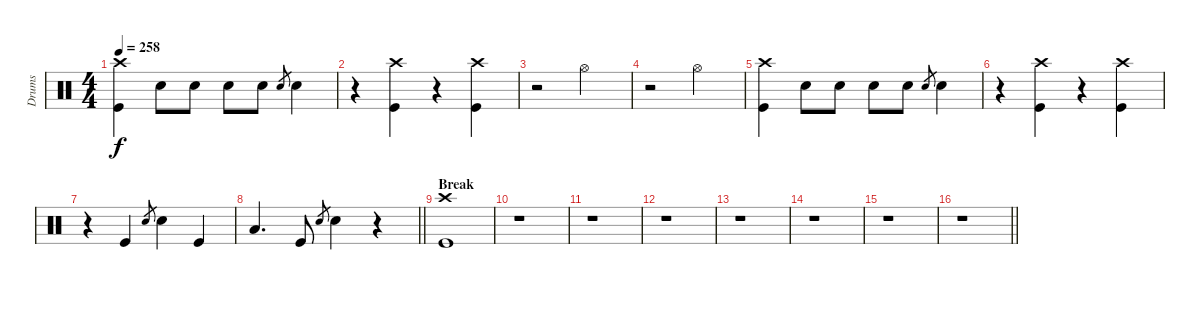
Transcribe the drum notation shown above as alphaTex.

\track ("Drums" "Drums") {instrument percussion}
\staff {score}
\articulation defaults
\ts (4 4)
\tempo 258
\clef neutral
\ks c
("Crash high (hit)" "Kick (hit)").4{dy f} "Electric Snare (hit)".8 "Electric Snare (hit)".8 "Electric Snare (hit)".8 "Electric Snare (hit)".8 "Electric Snare (hit)".8{gr} "Electric Snare (hit)".4 |
r.4 ("Crash high (hit)" "Kick (hit)").4 r.4 ("Crash high (hit)" "Kick (hit)").4 |
r.2 "Hi-Hat (open)".2 |
r.2 "Hi-Hat (open)".2 |
("Crash high (hit)" "Kick (hit)").4 "Electric Snare (hit)".8 "Electric Snare (hit)".8 "Electric Snare (hit)".8 "Electric Snare (hit)".8 "Electric Snare (hit)".8{gr} "Electric Snare (hit)".4 |
r.4 ("Crash high (hit)" "Kick (hit)").4 r.4 ("Crash high (hit)" "Kick (hit)").4 |
r.4 "Kick (hit)".4 "Electric Snare (hit)".8{gr} "Electric Snare (hit)".4 "Kick (hit)".4 |
\barLineRight lightlight "Low Floor Tom (hit)".4{d} "Kick (hit)".8 "Electric Snare (hit)".8{gr} "Electric Snare (hit)".4
r.4 |
\section ("" "Break")
("Crash high (hit)" "Kick (hit)").1 |
r.1 |
r.1 |
r.1 |
r.1 |
r.1 |
r.1 |
\barLineRight lightlight
r.1
